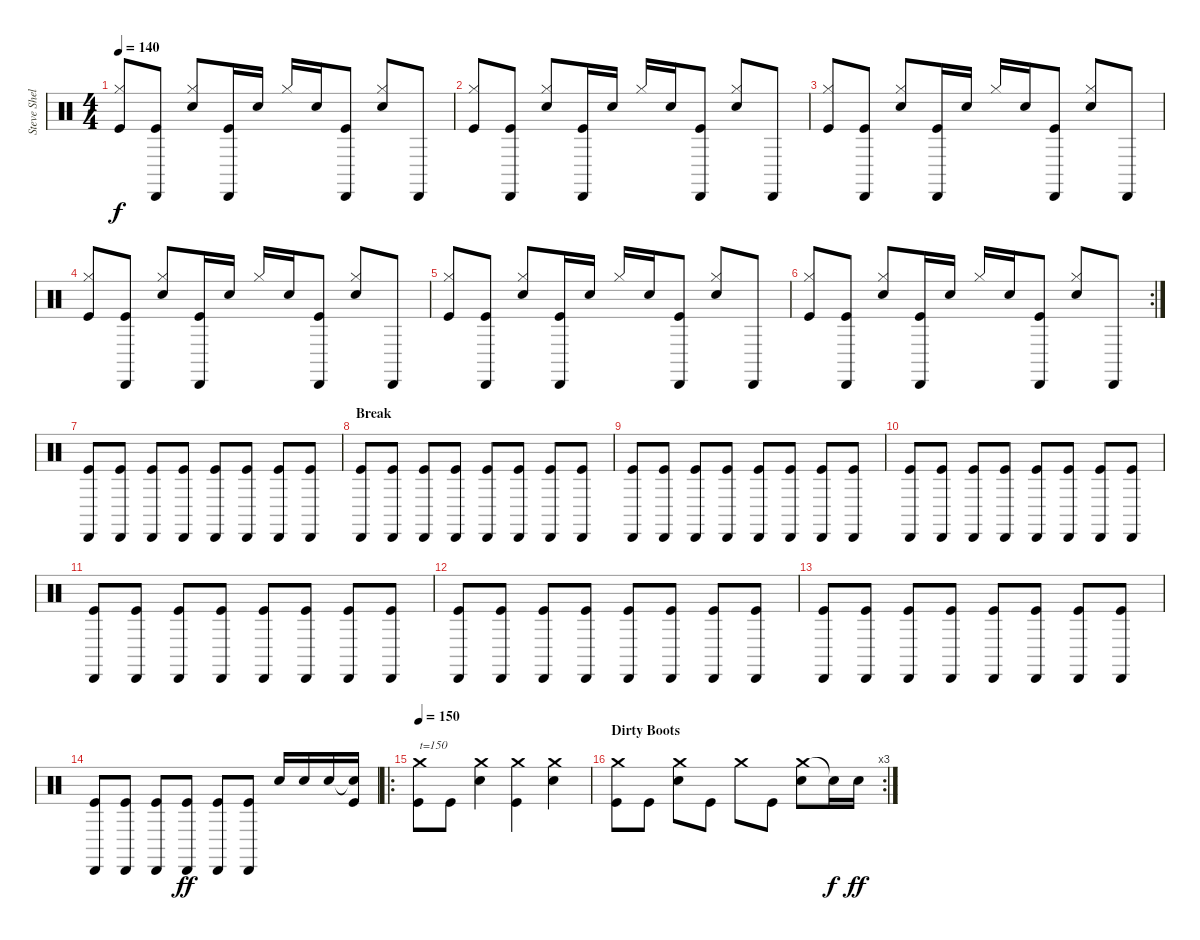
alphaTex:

\track ("Steve Shelley" "Steve Shel") {instrument percussion}
\staff {score}
\articulation defaults
\ts (4 4)
\tempo 140
\clef neutral
\ks c
("Hi-Hat (closed)" "Kick (hit)").8{dy f} ("Cabasa (hit)" "Kick (hit)").8 ("Hi-Hat (closed)" "Electric Snare (hit)").8 ("Cabasa (hit)" "Kick (hit)").16 "Electric Snare (hit)".16 "Hi-Hat (closed)".16 "Electric Snare (hit)".16 ("Cabasa (hit)" "Kick (hit)").8 ("Hi-Hat (closed)" "Electric Snare (hit)").8 "Cabasa (hit)".8 |
("Hi-Hat (closed)" "Kick (hit)").8 ("Cabasa (hit)" "Kick (hit)").8 ("Hi-Hat (closed)" "Electric Snare (hit)").8 ("Cabasa (hit)" "Kick (hit)").16 "Electric Snare (hit)".16 "Hi-Hat (closed)".16 "Electric Snare (hit)".16 ("Cabasa (hit)" "Kick (hit)").8 ("Hi-Hat (closed)" "Electric Snare (hit)").8 "Cabasa (hit)".8 |
("Hi-Hat (closed)" "Kick (hit)").8 ("Cabasa (hit)" "Kick (hit)").8 ("Hi-Hat (closed)" "Electric Snare (hit)").8 ("Cabasa (hit)" "Kick (hit)").16 "Electric Snare (hit)".16 "Hi-Hat (closed)".16 "Electric Snare (hit)".16 ("Cabasa (hit)" "Kick (hit)").8 ("Hi-Hat (closed)" "Electric Snare (hit)").8 "Cabasa (hit)".8 |
("Hi-Hat (closed)" "Kick (hit)").8 ("Cabasa (hit)" "Kick (hit)").8 ("Hi-Hat (closed)" "Electric Snare (hit)").8 ("Cabasa (hit)" "Kick (hit)").16 "Electric Snare (hit)".16 "Hi-Hat (closed)".16 "Electric Snare (hit)".16 ("Cabasa (hit)" "Kick (hit)").8 ("Hi-Hat (closed)" "Electric Snare (hit)").8 "Cabasa (hit)".8 |
("Hi-Hat (closed)" "Kick (hit)").8 ("Cabasa (hit)" "Kick (hit)").8 ("Hi-Hat (closed)" "Electric Snare (hit)").8 ("Cabasa (hit)" "Kick (hit)").16 "Electric Snare (hit)".16 "Hi-Hat (closed)".16 "Electric Snare (hit)".16 ("Cabasa (hit)" "Kick (hit)").8 ("Hi-Hat (closed)" "Electric Snare (hit)").8 "Cabasa (hit)".8 |
\rc 2
("Hi-Hat (closed)" "Kick (hit)").8 ("Cabasa (hit)" "Kick (hit)").8 ("Hi-Hat (closed)" "Electric Snare (hit)").8 ("Cabasa (hit)" "Kick (hit)").16 "Electric Snare (hit)".16 "Hi-Hat (closed)".16 "Electric Snare (hit)".16 ("Cabasa (hit)" "Kick (hit)").8 ("Hi-Hat (closed)" "Electric Snare (hit)").8 "Cabasa (hit)".8 |
("Cabasa (hit)" "Kick (hit)").8 ("Cabasa (hit)" "Kick (hit)").8 ("Cabasa (hit)" "Kick (hit)").8 ("Cabasa (hit)" "Kick (hit)").8 ("Cabasa (hit)" "Kick (hit)").8 ("Cabasa (hit)" "Kick (hit)").8 ("Cabasa (hit)" "Kick (hit)").8 ("Cabasa (hit)" "Kick (hit)").8 |
\section ("" "Break")
("Cabasa (hit)" "Kick (hit)").8 ("Cabasa (hit)" "Kick (hit)").8 ("Cabasa (hit)" "Kick (hit)").8 ("Cabasa (hit)" "Kick (hit)").8 ("Cabasa (hit)" "Kick (hit)").8 ("Cabasa (hit)" "Kick (hit)").8 ("Cabasa (hit)" "Kick (hit)").8 ("Cabasa (hit)" "Kick (hit)").8 |
("Cabasa (hit)" "Kick (hit)").8 ("Cabasa (hit)" "Kick (hit)").8 ("Cabasa (hit)" "Kick (hit)").8 ("Cabasa (hit)" "Kick (hit)").8 ("Cabasa (hit)" "Kick (hit)").8 ("Cabasa (hit)" "Kick (hit)").8 ("Cabasa (hit)" "Kick (hit)").8 ("Cabasa (hit)" "Kick (hit)").8 |
("Cabasa (hit)" "Kick (hit)").8 ("Cabasa (hit)" "Kick (hit)").8 ("Cabasa (hit)" "Kick (hit)").8 ("Cabasa (hit)" "Kick (hit)").8 ("Cabasa (hit)" "Kick (hit)").8 ("Cabasa (hit)" "Kick (hit)").8 ("Cabasa (hit)" "Kick (hit)").8 ("Cabasa (hit)" "Kick (hit)").8 |
("Cabasa (hit)" "Kick (hit)").8 ("Cabasa (hit)" "Kick (hit)").8 ("Cabasa (hit)" "Kick (hit)").8 ("Cabasa (hit)" "Kick (hit)").8 ("Cabasa (hit)" "Kick (hit)").8 ("Cabasa (hit)" "Kick (hit)").8 ("Cabasa (hit)" "Kick (hit)").8 ("Cabasa (hit)" "Kick (hit)").8 |
("Cabasa (hit)" "Kick (hit)").8 ("Cabasa (hit)" "Kick (hit)").8 ("Cabasa (hit)" "Kick (hit)").8 ("Cabasa (hit)" "Kick (hit)").8 ("Cabasa (hit)" "Kick (hit)").8 ("Cabasa (hit)" "Kick (hit)").8 ("Cabasa (hit)" "Kick (hit)").8 ("Cabasa (hit)" "Kick (hit)").8 |
("Cabasa (hit)" "Kick (hit)").8 ("Cabasa (hit)" "Kick (hit)").8 ("Cabasa (hit)" "Kick (hit)").8 ("Cabasa (hit)" "Kick (hit)").8 ("Cabasa (hit)" "Kick (hit)").8 ("Cabasa (hit)" "Kick (hit)").8 ("Cabasa (hit)" "Kick (hit)").8 ("Cabasa (hit)" "Kick (hit)").8 |
("Cabasa (hit)" "Kick (hit)").8 ("Cabasa (hit)" "Kick (hit)").8 ("Cabasa (hit)" "Kick (hit)").8 ("Cabasa (hit)" "Kick (hit)").8{dy ff} ("Cabasa (hit)" "Kick (hit)").8 ("Cabasa (hit)" "Kick (hit)").8 "Electric Snare (hit)".16 "Electric Snare (hit)".16 "Electric Snare (hit)".16 ("Snare (hit)"{t} "Kick (hit)").16 |
\ro
\tempo 150
("Crash medium (hit)" "Kick (hit)").8{txt "t=150"} "Kick (hit)".8 ("Crash medium (hit)" "Electric Snare (hit)").4 ("Crash medium (hit)" "Kick (hit)").4 ("Crash medium (hit)" "Electric Snare (hit)").4 |
\rc 3
\section ("" "Dirty Boots")
("Crash medium (hit)" "Kick (hit)").8 "Kick (hit)".8 ("Crash medium (hit)" "Electric Snare (hit)").8 "Kick (hit)".8 "Crash medium (hit)".8 "Kick (hit)".8 ("Crash medium (hit)" "Electric Snare (hit)").8 "Electric Snare (hit)"{t}.16{dy f} "Electric Snare (hit)".16{dy ff}
